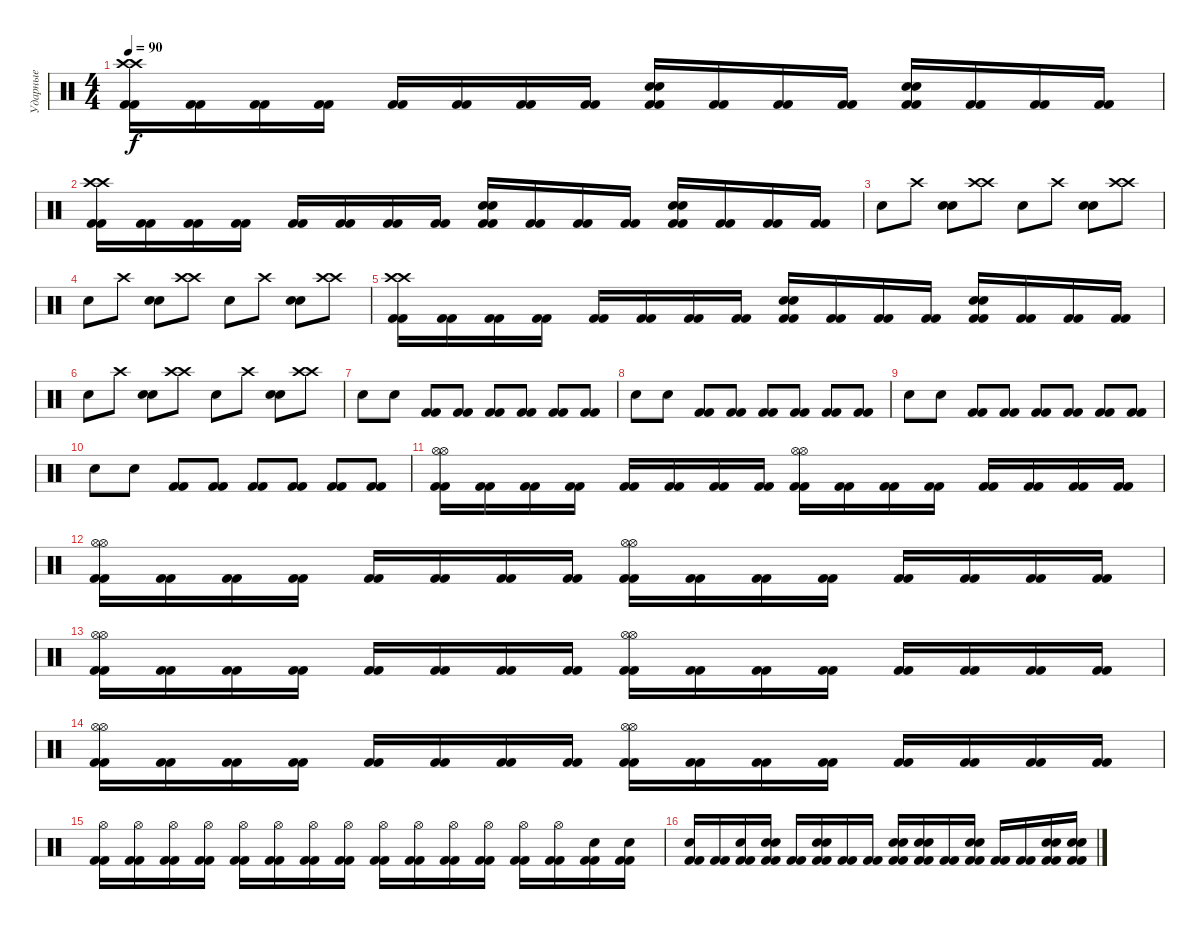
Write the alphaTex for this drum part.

\track ("Ударные" "Ударные") {instrument percussion}
\staff {score}
\articulation defaults
\ts (4 4)
\tempo 90
\clef neutral
\ks c
("Kick (hit) 2" "Kick (hit) 2" "Crash high (hit)" "Crash high (hit)").16{dy f} ("Kick (hit) 2" "Kick (hit) 2").16 ("Kick (hit) 2" "Kick (hit) 2").16 ("Kick (hit) 2" "Kick (hit) 2").16 ("Kick (hit) 2" "Kick (hit) 2").16 ("Kick (hit) 2" "Kick (hit) 2").16 ("Kick (hit) 2" "Kick (hit) 2").16 ("Kick (hit) 2" "Kick (hit) 2").16 ("Kick (hit) 2" "Kick (hit) 2" "Electric Snare (hit)" "Electric Snare (hit)").16 ("Kick (hit) 2" "Kick (hit) 2").16 ("Kick (hit) 2" "Kick (hit) 2").16 ("Kick (hit) 2" "Kick (hit) 2").16 ("Kick (hit) 2" "Kick (hit) 2" "Electric Snare (hit)" "Electric Snare (hit)").16 ("Kick (hit) 2" "Kick (hit) 2").16 ("Kick (hit) 2" "Kick (hit) 2").16 ("Kick (hit) 2" "Kick (hit) 2").16 |
("Kick (hit) 2" "Kick (hit) 2" "Crash high (hit)" "Crash high (hit)").16 ("Kick (hit) 2" "Kick (hit) 2").16 ("Kick (hit) 2" "Kick (hit) 2").16 ("Kick (hit) 2" "Kick (hit) 2").16 ("Kick (hit) 2" "Kick (hit) 2").16 ("Kick (hit) 2" "Kick (hit) 2").16 ("Kick (hit) 2" "Kick (hit) 2").16 ("Kick (hit) 2" "Kick (hit) 2").16 ("Kick (hit) 2" "Kick (hit) 2" "Electric Snare (hit)" "Electric Snare (hit)").16 ("Kick (hit) 2" "Kick (hit) 2").16 ("Kick (hit) 2" "Kick (hit) 2").16 ("Kick (hit) 2" "Kick (hit) 2").16 ("Kick (hit) 2" "Kick (hit) 2" "Electric Snare (hit)" "Electric Snare (hit)").16 ("Kick (hit) 2" "Kick (hit) 2").16 ("Kick (hit) 2" "Kick (hit) 2").16 ("Kick (hit) 2" "Kick (hit) 2").16 |
"Electric Snare (hit)".8 "Crash high (hit)".8 ("Electric Snare (hit)" "Electric Snare (hit)").8 ("Crash high (hit)" "Crash high (hit)").8 "Electric Snare (hit)".8 "Crash high (hit)".8 ("Electric Snare (hit)" "Electric Snare (hit)").8 ("Crash high (hit)" "Crash high (hit)").8 |
"Electric Snare (hit)".8 "Crash high (hit)".8 ("Electric Snare (hit)" "Electric Snare (hit)").8 ("Crash high (hit)" "Crash high (hit)").8 "Electric Snare (hit)".8 "Crash high (hit)".8 ("Electric Snare (hit)" "Electric Snare (hit)").8 ("Crash high (hit)" "Crash high (hit)").8 |
("Kick (hit) 2" "Kick (hit) 2" "Crash high (hit)" "Crash high (hit)").16 ("Kick (hit) 2" "Kick (hit) 2").16 ("Kick (hit) 2" "Kick (hit) 2").16 ("Kick (hit) 2" "Kick (hit) 2").16 ("Kick (hit) 2" "Kick (hit) 2").16 ("Kick (hit) 2" "Kick (hit) 2").16 ("Kick (hit) 2" "Kick (hit) 2").16 ("Kick (hit) 2" "Kick (hit) 2").16 ("Kick (hit) 2" "Kick (hit) 2" "Electric Snare (hit)" "Electric Snare (hit)").16 ("Kick (hit) 2" "Kick (hit) 2").16 ("Kick (hit) 2" "Kick (hit) 2").16 ("Kick (hit) 2" "Kick (hit) 2").16 ("Kick (hit) 2" "Kick (hit) 2" "Electric Snare (hit)" "Electric Snare (hit)").16 ("Kick (hit) 2" "Kick (hit) 2").16 ("Kick (hit) 2" "Kick (hit) 2").16 ("Kick (hit) 2" "Kick (hit) 2").16 |
"Electric Snare (hit)".8 "Crash high (hit)".8 ("Electric Snare (hit)" "Electric Snare (hit)").8 ("Crash high (hit)" "Crash high (hit)").8 "Electric Snare (hit)".8 "Crash high (hit)".8 ("Electric Snare (hit)" "Electric Snare (hit)").8 ("Crash high (hit)" "Crash high (hit)").8 |
"Electric Snare (hit)".8 "Electric Snare (hit)".8 ("Kick (hit) 2" "Kick (hit) 2").8 ("Kick (hit) 2" "Kick (hit) 2").8 ("Kick (hit) 2" "Kick (hit) 2").8 ("Kick (hit) 2" "Kick (hit) 2").8 ("Kick (hit) 2" "Kick (hit) 2").8 ("Kick (hit) 2" "Kick (hit) 2").8 |
"Electric Snare (hit)".8 "Electric Snare (hit)".8 ("Kick (hit) 2" "Kick (hit) 2").8 ("Kick (hit) 2" "Kick (hit) 2").8 ("Kick (hit) 2" "Kick (hit) 2").8 ("Kick (hit) 2" "Kick (hit) 2").8 ("Kick (hit) 2" "Kick (hit) 2").8 ("Kick (hit) 2" "Kick (hit) 2").8 |
"Electric Snare (hit)".8 "Electric Snare (hit)".8 ("Kick (hit) 2" "Kick (hit) 2").8 ("Kick (hit) 2" "Kick (hit) 2").8 ("Kick (hit) 2" "Kick (hit) 2").8 ("Kick (hit) 2" "Kick (hit) 2").8 ("Kick (hit) 2" "Kick (hit) 2").8 ("Kick (hit) 2" "Kick (hit) 2").8 |
"Electric Snare (hit)".8 "Electric Snare (hit)".8 ("Kick (hit) 2" "Kick (hit) 2").8 ("Kick (hit) 2" "Kick (hit) 2").8 ("Kick (hit) 2" "Kick (hit) 2").8 ("Kick (hit) 2" "Kick (hit) 2").8 ("Kick (hit) 2" "Kick (hit) 2").8 ("Kick (hit) 2" "Kick (hit) 2").8 |
("Kick (hit) 2" "Kick (hit) 2" "Hi-Hat (open)" "Hi-Hat (open)").16 ("Kick (hit) 2" "Kick (hit) 2").16 ("Kick (hit) 2" "Kick (hit) 2").16 ("Kick (hit) 2" "Kick (hit) 2").16 ("Kick (hit) 2" "Kick (hit) 2").16 ("Kick (hit) 2" "Kick (hit) 2").16 ("Kick (hit) 2" "Kick (hit) 2").16 ("Kick (hit) 2" "Kick (hit) 2").16 ("Kick (hit) 2" "Kick (hit) 2" "Hi-Hat (open)" "Hi-Hat (open)").16 ("Kick (hit) 2" "Kick (hit) 2").16 ("Kick (hit) 2" "Kick (hit) 2").16 ("Kick (hit) 2" "Kick (hit) 2").16 ("Kick (hit) 2" "Kick (hit) 2").16 ("Kick (hit) 2" "Kick (hit) 2").16 ("Kick (hit) 2" "Kick (hit) 2").16 ("Kick (hit) 2" "Kick (hit) 2").16 |
("Kick (hit) 2" "Kick (hit) 2" "Hi-Hat (open)" "Hi-Hat (open)").16 ("Kick (hit) 2" "Kick (hit) 2").16 ("Kick (hit) 2" "Kick (hit) 2").16 ("Kick (hit) 2" "Kick (hit) 2").16 ("Kick (hit) 2" "Kick (hit) 2").16 ("Kick (hit) 2" "Kick (hit) 2").16 ("Kick (hit) 2" "Kick (hit) 2").16 ("Kick (hit) 2" "Kick (hit) 2").16 ("Kick (hit) 2" "Kick (hit) 2" "Hi-Hat (open)" "Hi-Hat (open)").16 ("Kick (hit) 2" "Kick (hit) 2").16 ("Kick (hit) 2" "Kick (hit) 2").16 ("Kick (hit) 2" "Kick (hit) 2").16 ("Kick (hit) 2" "Kick (hit) 2").16 ("Kick (hit) 2" "Kick (hit) 2").16 ("Kick (hit) 2" "Kick (hit) 2").16 ("Kick (hit) 2" "Kick (hit) 2").16 |
("Kick (hit) 2" "Kick (hit) 2" "Hi-Hat (open)" "Hi-Hat (open)").16 ("Kick (hit) 2" "Kick (hit) 2").16 ("Kick (hit) 2" "Kick (hit) 2").16 ("Kick (hit) 2" "Kick (hit) 2").16 ("Kick (hit) 2" "Kick (hit) 2").16 ("Kick (hit) 2" "Kick (hit) 2").16 ("Kick (hit) 2" "Kick (hit) 2").16 ("Kick (hit) 2" "Kick (hit) 2").16 ("Kick (hit) 2" "Kick (hit) 2" "Hi-Hat (open)" "Hi-Hat (open)").16 ("Kick (hit) 2" "Kick (hit) 2").16 ("Kick (hit) 2" "Kick (hit) 2").16 ("Kick (hit) 2" "Kick (hit) 2").16 ("Kick (hit) 2" "Kick (hit) 2").16 ("Kick (hit) 2" "Kick (hit) 2").16 ("Kick (hit) 2" "Kick (hit) 2").16 ("Kick (hit) 2" "Kick (hit) 2").16 |
("Kick (hit) 2" "Kick (hit) 2" "Hi-Hat (open)" "Hi-Hat (open)").16 ("Kick (hit) 2" "Kick (hit) 2").16 ("Kick (hit) 2" "Kick (hit) 2").16 ("Kick (hit) 2" "Kick (hit) 2").16 ("Kick (hit) 2" "Kick (hit) 2").16 ("Kick (hit) 2" "Kick (hit) 2").16 ("Kick (hit) 2" "Kick (hit) 2").16 ("Kick (hit) 2" "Kick (hit) 2").16 ("Kick (hit) 2" "Kick (hit) 2" "Hi-Hat (open)" "Hi-Hat (open)").16 ("Kick (hit) 2" "Kick (hit) 2").16 ("Kick (hit) 2" "Kick (hit) 2").16 ("Kick (hit) 2" "Kick (hit) 2").16 ("Kick (hit) 2" "Kick (hit) 2").16 ("Kick (hit) 2" "Kick (hit) 2").16 ("Kick (hit) 2" "Kick (hit) 2").16 ("Kick (hit) 2" "Kick (hit) 2").16 |
("Kick (hit) 2" "Kick (hit) 2" "Hi-Hat (open)").16 ("Kick (hit) 2" "Kick (hit) 2" "Hi-Hat (open)").16 ("Kick (hit) 2" "Kick (hit) 2" "Hi-Hat (open)").16 ("Kick (hit) 2" "Kick (hit) 2" "Hi-Hat (open)").16 ("Kick (hit) 2" "Kick (hit) 2" "Hi-Hat (open)").16 ("Kick (hit) 2" "Kick (hit) 2" "Hi-Hat (open)").16 ("Kick (hit) 2" "Kick (hit) 2" "Hi-Hat (open)").16 ("Kick (hit) 2" "Kick (hit) 2" "Hi-Hat (open)").16 ("Kick (hit) 2" "Kick (hit) 2" "Hi-Hat (open)").16 ("Kick (hit) 2" "Kick (hit) 2" "Hi-Hat (open)").16 ("Kick (hit) 2" "Kick (hit) 2" "Hi-Hat (open)").16 ("Kick (hit) 2" "Kick (hit) 2" "Hi-Hat (open)").16 ("Kick (hit) 2" "Kick (hit) 2" "Hi-Hat (open)").16 ("Kick (hit) 2" "Kick (hit) 2" "Hi-Hat (open)").16 ("Kick (hit) 2" "Kick (hit) 2" "Electric Snare (hit)").16 ("Kick (hit) 2" "Kick (hit) 2" "Electric Snare (hit)").16 |
("Kick (hit) 2" "Kick (hit) 2" "Electric Snare (hit)").16 ("Kick (hit) 2" "Kick (hit) 2").16 ("Kick (hit) 2" "Kick (hit) 2" "Electric Snare (hit)").16 ("Kick (hit) 2" "Kick (hit) 2" "Electric Snare (hit)" "Electric Snare (hit)").16 ("Kick (hit) 2" "Kick (hit) 2").16 ("Kick (hit) 2" "Kick (hit) 2" "Electric Snare (hit)" "Electric Snare (hit)").16 ("Kick (hit) 2" "Kick (hit) 2").16 ("Kick (hit) 2" "Kick (hit) 2").16 ("Kick (hit) 2" "Kick (hit) 2" "Electric Snare (hit)" "Electric Snare (hit)").16 ("Kick (hit) 2" "Kick (hit) 2" "Electric Snare (hit)" "Electric Snare (hit)").16 ("Kick (hit) 2" "Kick (hit) 2").16 ("Kick (hit) 2" "Kick (hit) 2" "Electric Snare (hit)" "Electric Snare (hit)").16 ("Kick (hit) 2" "Kick (hit) 2").16 ("Kick (hit) 2" "Kick (hit) 2").16 ("Kick (hit) 2" "Kick (hit) 2" "Electric Snare (hit)" "Electric Snare (hit)").16 ("Kick (hit) 2" "Kick (hit) 2" "Electric Snare (hit)" "Electric Snare (hit)").16
